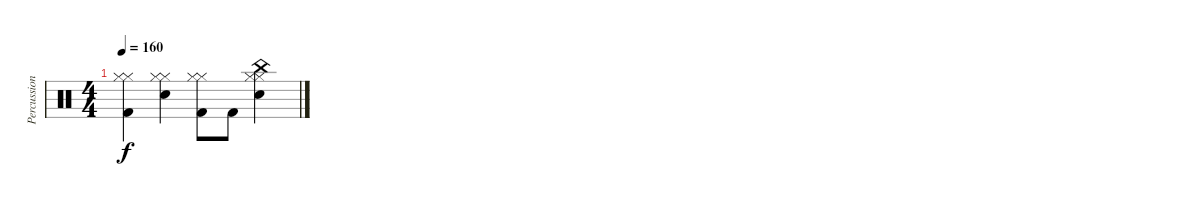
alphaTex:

\track ("Percussion" "Percussion") {instrument percussion}
\staff {score}
\articulation defaults
\ts (4 4)
\tempo 160
\clef neutral
\ks c
("Hi-Hat (closed)" "Hi-Hat (closed)" "Kick (hit) 2").4{dy f} ("Hi-Hat (closed)" "Hi-Hat (closed)" "Snare (hit) 2").4 ("Hi-Hat (closed)" "Hi-Hat (closed)" "Kick (hit) 2").8 "Kick (hit) 2".8 ("Hi-Hat (closed)" "Hi-Hat (closed)" "China (hit)" "Snare (hit) 2").4
